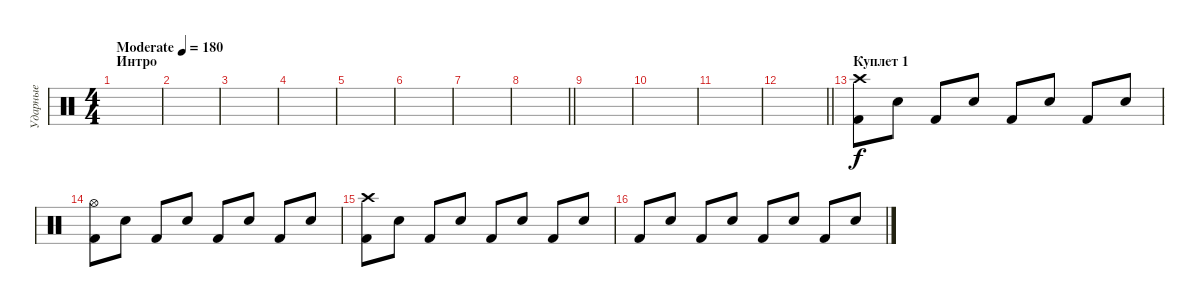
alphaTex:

\track ("Ударные" "Ударные") {instrument percussion}
\staff {score}
\articulation defaults
\ts (4 4)
\section ("" "Интро")
\tempo (180 "Moderate")
\clef neutral
\ks c
|
|
|
|
|
|
|
\barLineRight lightlight
|
|
|
|
\barLineRight lightlight
|
\section ("" "Куплет 1")
("Kick (hit) 2" "Crash high (hit)").8 "Snare (hit) 2".8 "Kick (hit) 2".8 "Snare (hit) 2".8 "Kick (hit) 2".8 "Snare (hit) 2".8 "Kick (hit) 2".8 "Snare (hit) 2".8 |
("Kick (hit) 2" "Hi-Hat (open)").8 "Snare (hit) 2".8 "Kick (hit) 2".8 "Snare (hit) 2".8 "Kick (hit) 2".8 "Snare (hit) 2".8 "Kick (hit) 2".8 "Snare (hit) 2".8 |
("Kick (hit) 2" "Crash high (hit)").8 "Snare (hit) 2".8 "Kick (hit) 2".8 "Snare (hit) 2".8 "Kick (hit) 2".8 "Snare (hit) 2".8 "Kick (hit) 2".8 "Snare (hit) 2".8 |
"Kick (hit) 2".8 "Snare (hit) 2".8 "Kick (hit) 2".8 "Snare (hit) 2".8 "Kick (hit) 2".8 "Snare (hit) 2".8 "Kick (hit) 2".8 "Snare (hit) 2".8
